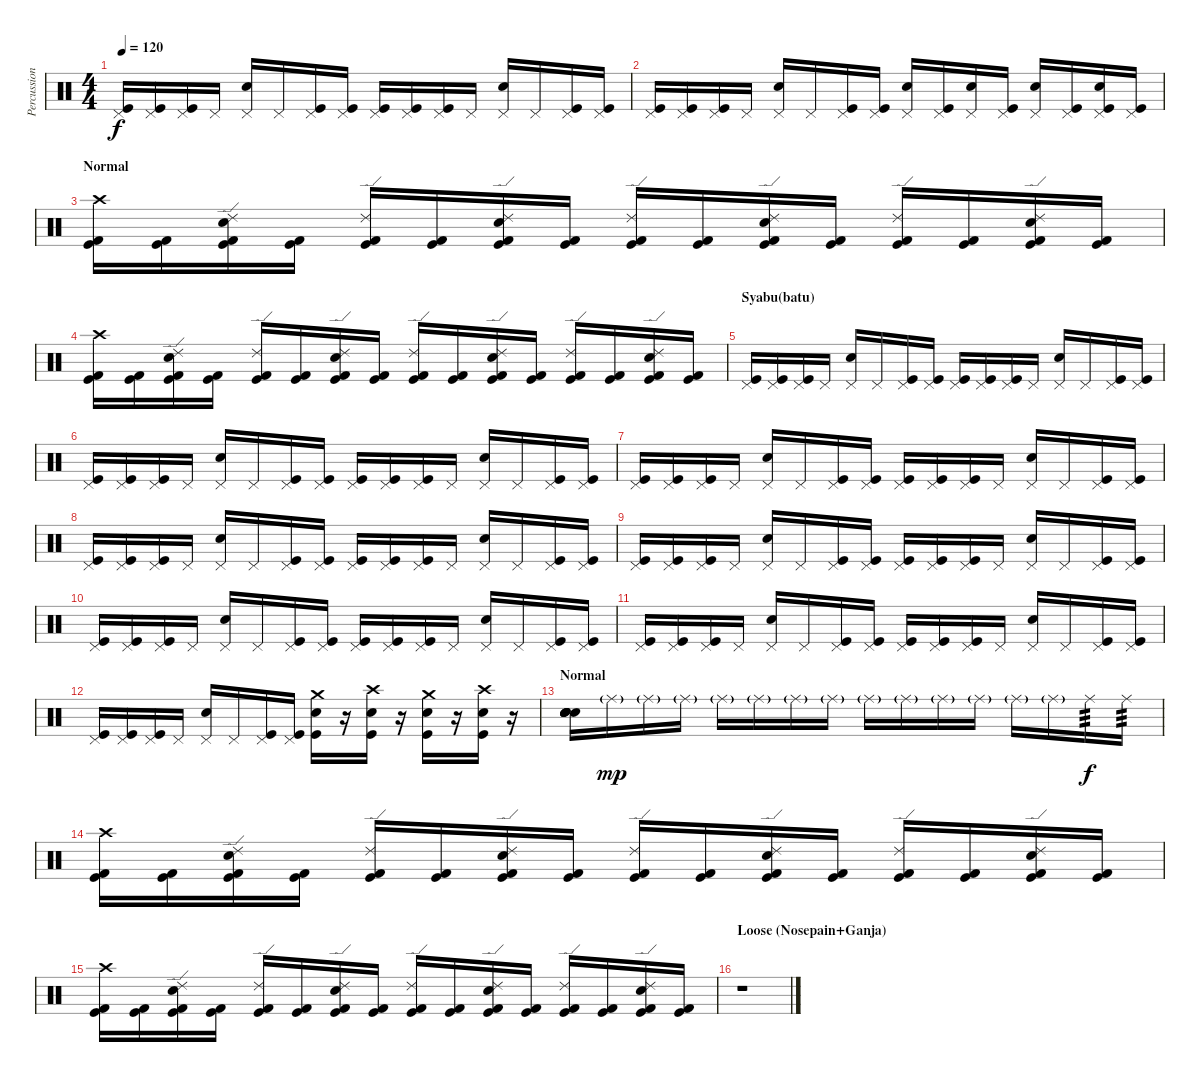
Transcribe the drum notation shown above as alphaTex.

\track ("Percussion" "Percussion") {instrument percussion}
\staff {score}
\articulation defaults
\ts (4 4)
\tempo 120
\clef neutral
\ks c
("Kick (hit)" "Pedal Hi-Hat (hit)").16{dy f} ("Kick (hit)" "Pedal Hi-Hat (hit)").16 ("Kick (hit)" "Pedal Hi-Hat (hit)").16 "Pedal Hi-Hat (hit)".16 ("Snare (hit) 2" "Pedal Hi-Hat (hit)").16 "Pedal Hi-Hat (hit)".16 ("Kick (hit)" "Pedal Hi-Hat (hit)").16 ("Kick (hit)" "Pedal Hi-Hat (hit)").16 ("Kick (hit)" "Pedal Hi-Hat (hit)").16 ("Kick (hit)" "Pedal Hi-Hat (hit)").16 ("Kick (hit)" "Pedal Hi-Hat (hit)").16 "Pedal Hi-Hat (hit)".16 ("Snare (hit) 2" "Pedal Hi-Hat (hit)").16 "Pedal Hi-Hat (hit)".16 ("Kick (hit)" "Pedal Hi-Hat (hit)").16 ("Kick (hit)" "Pedal Hi-Hat (hit)").16 |
("Kick (hit)" "Pedal Hi-Hat (hit)").16 ("Kick (hit)" "Pedal Hi-Hat (hit)").16 ("Kick (hit)" "Pedal Hi-Hat (hit)").16 "Pedal Hi-Hat (hit)".16 ("Snare (hit) 2" "Pedal Hi-Hat (hit)").16 "Pedal Hi-Hat (hit)".16 ("Kick (hit)" "Pedal Hi-Hat (hit)").16 ("Kick (hit)" "Pedal Hi-Hat (hit)").16 ("Snare (hit) 2" "Pedal Hi-Hat (hit)").16 ("Kick (hit)" "Pedal Hi-Hat (hit)").16 ("Snare (hit) 2" "Pedal Hi-Hat (hit)").16 ("Kick (hit)" "Pedal Hi-Hat (hit)").16 ("Snare (hit) 2" "Pedal Hi-Hat (hit)").16 ("Kick (hit)" "Pedal Hi-Hat (hit)").16 ("Kick (hit)" "Snare (hit) 2" "Pedal Hi-Hat (hit)").16 ("Kick (hit)" "Pedal Hi-Hat (hit)").16 |
\section ("" "Normal")
("Kick (hit)" "Kick (hit) 2" "Crash high (hit)").16 ("Kick (hit)" "Kick (hit) 2").16 ("Kick (hit)" "Kick (hit) 2" "Electric Snare (hit)" "Ride (edge) 2").16 ("Kick (hit)" "Kick (hit) 2").16 ("Kick (hit)" "Kick (hit) 2" "Ride (edge) 2").16 ("Kick (hit)" "Kick (hit) 2").16 ("Kick (hit)" "Kick (hit) 2" "Electric Snare (hit)" "Ride (edge) 2").16 ("Kick (hit)" "Kick (hit) 2").16 ("Kick (hit)" "Kick (hit) 2" "Ride (edge) 2").16 ("Kick (hit)" "Kick (hit) 2").16 ("Kick (hit)" "Kick (hit) 2" "Electric Snare (hit)" "Ride (edge) 2").16 ("Kick (hit)" "Kick (hit) 2").16 ("Kick (hit)" "Kick (hit) 2" "Ride (edge) 2").16 ("Kick (hit)" "Kick (hit) 2").16 ("Kick (hit)" "Kick (hit) 2" "Electric Snare (hit)" "Ride (edge) 2").16 ("Kick (hit)" "Kick (hit) 2").16 |
("Kick (hit)" "Kick (hit) 2" "Crash high (hit)").16 ("Kick (hit)" "Kick (hit) 2").16 ("Kick (hit)" "Kick (hit) 2" "Electric Snare (hit)" "Ride (edge) 2").16 ("Kick (hit)" "Kick (hit) 2").16 ("Kick (hit)" "Kick (hit) 2" "Ride (edge) 2").16 ("Kick (hit)" "Kick (hit) 2").16 ("Kick (hit)" "Kick (hit) 2" "Electric Snare (hit)" "Ride (edge) 2").16 ("Kick (hit)" "Kick (hit) 2").16 ("Kick (hit)" "Kick (hit) 2" "Ride (edge) 2").16 ("Kick (hit)" "Kick (hit) 2").16 ("Kick (hit)" "Kick (hit) 2" "Electric Snare (hit)" "Ride (edge) 2").16 ("Kick (hit)" "Kick (hit) 2").16 ("Kick (hit)" "Kick (hit) 2" "Ride (edge) 2").16 ("Kick (hit)" "Kick (hit) 2").16 ("Kick (hit)" "Kick (hit) 2" "Electric Snare (hit)" "Ride (edge) 2").16 ("Kick (hit)" "Kick (hit) 2").16 |
\section ("" "Syabu(batu)")
("Kick (hit)" "Pedal Hi-Hat (hit)").16 ("Kick (hit)" "Pedal Hi-Hat (hit)").16 ("Kick (hit)" "Pedal Hi-Hat (hit)").16 "Pedal Hi-Hat (hit)".16 ("Snare (hit) 2" "Pedal Hi-Hat (hit)").16 "Pedal Hi-Hat (hit)".16 ("Kick (hit)" "Pedal Hi-Hat (hit)").16 ("Kick (hit)" "Pedal Hi-Hat (hit)").16 ("Kick (hit)" "Pedal Hi-Hat (hit)").16 ("Kick (hit)" "Pedal Hi-Hat (hit)").16 ("Kick (hit)" "Pedal Hi-Hat (hit)").16 "Pedal Hi-Hat (hit)".16 ("Snare (hit) 2" "Pedal Hi-Hat (hit)").16 "Pedal Hi-Hat (hit)".16 ("Kick (hit)" "Pedal Hi-Hat (hit)").16 ("Kick (hit)" "Pedal Hi-Hat (hit)").16 |
("Kick (hit)" "Pedal Hi-Hat (hit)").16 ("Kick (hit)" "Pedal Hi-Hat (hit)").16 ("Kick (hit)" "Pedal Hi-Hat (hit)").16 "Pedal Hi-Hat (hit)".16 ("Snare (hit) 2" "Pedal Hi-Hat (hit)").16 "Pedal Hi-Hat (hit)".16 ("Kick (hit)" "Pedal Hi-Hat (hit)").16 ("Kick (hit)" "Pedal Hi-Hat (hit)").16 ("Kick (hit)" "Pedal Hi-Hat (hit)").16 ("Kick (hit)" "Pedal Hi-Hat (hit)").16 ("Kick (hit)" "Pedal Hi-Hat (hit)").16 "Pedal Hi-Hat (hit)".16 ("Snare (hit) 2" "Pedal Hi-Hat (hit)").16 "Pedal Hi-Hat (hit)".16 ("Kick (hit)" "Pedal Hi-Hat (hit)").16 ("Kick (hit)" "Pedal Hi-Hat (hit)").16 |
("Kick (hit)" "Pedal Hi-Hat (hit)").16 ("Kick (hit)" "Pedal Hi-Hat (hit)").16 ("Kick (hit)" "Pedal Hi-Hat (hit)").16 "Pedal Hi-Hat (hit)".16 ("Snare (hit) 2" "Pedal Hi-Hat (hit)").16 "Pedal Hi-Hat (hit)".16 ("Kick (hit)" "Pedal Hi-Hat (hit)").16 ("Kick (hit)" "Pedal Hi-Hat (hit)").16 ("Kick (hit)" "Pedal Hi-Hat (hit)").16 ("Kick (hit)" "Pedal Hi-Hat (hit)").16 ("Kick (hit)" "Pedal Hi-Hat (hit)").16 "Pedal Hi-Hat (hit)".16 ("Snare (hit) 2" "Pedal Hi-Hat (hit)").16 "Pedal Hi-Hat (hit)".16 ("Kick (hit)" "Pedal Hi-Hat (hit)").16 ("Kick (hit)" "Pedal Hi-Hat (hit)").16 |
("Kick (hit)" "Pedal Hi-Hat (hit)").16 ("Kick (hit)" "Pedal Hi-Hat (hit)").16 ("Kick (hit)" "Pedal Hi-Hat (hit)").16 "Pedal Hi-Hat (hit)".16 ("Snare (hit) 2" "Pedal Hi-Hat (hit)").16 "Pedal Hi-Hat (hit)".16 ("Kick (hit)" "Pedal Hi-Hat (hit)").16 ("Kick (hit)" "Pedal Hi-Hat (hit)").16 ("Kick (hit)" "Pedal Hi-Hat (hit)").16 ("Kick (hit)" "Pedal Hi-Hat (hit)").16 ("Kick (hit)" "Pedal Hi-Hat (hit)").16 "Pedal Hi-Hat (hit)".16 ("Snare (hit) 2" "Pedal Hi-Hat (hit)").16 "Pedal Hi-Hat (hit)".16 ("Kick (hit)" "Pedal Hi-Hat (hit)").16 ("Kick (hit)" "Pedal Hi-Hat (hit)").16 |
("Kick (hit)" "Pedal Hi-Hat (hit)").16 ("Kick (hit)" "Pedal Hi-Hat (hit)").16 ("Kick (hit)" "Pedal Hi-Hat (hit)").16 "Pedal Hi-Hat (hit)".16 ("Snare (hit) 2" "Pedal Hi-Hat (hit)").16 "Pedal Hi-Hat (hit)".16 ("Kick (hit)" "Pedal Hi-Hat (hit)").16 ("Kick (hit)" "Pedal Hi-Hat (hit)").16 ("Kick (hit)" "Pedal Hi-Hat (hit)").16 ("Kick (hit)" "Pedal Hi-Hat (hit)").16 ("Kick (hit)" "Pedal Hi-Hat (hit)").16 "Pedal Hi-Hat (hit)".16 ("Snare (hit) 2" "Pedal Hi-Hat (hit)").16 "Pedal Hi-Hat (hit)".16 ("Kick (hit)" "Pedal Hi-Hat (hit)").16 ("Kick (hit)" "Pedal Hi-Hat (hit)").16 |
("Kick (hit)" "Pedal Hi-Hat (hit)").16 ("Kick (hit)" "Pedal Hi-Hat (hit)").16 ("Kick (hit)" "Pedal Hi-Hat (hit)").16 "Pedal Hi-Hat (hit)".16 ("Snare (hit) 2" "Pedal Hi-Hat (hit)").16 "Pedal Hi-Hat (hit)".16 ("Kick (hit)" "Pedal Hi-Hat (hit)").16 ("Kick (hit)" "Pedal Hi-Hat (hit)").16 ("Kick (hit)" "Pedal Hi-Hat (hit)").16 ("Kick (hit)" "Pedal Hi-Hat (hit)").16 ("Kick (hit)" "Pedal Hi-Hat (hit)").16 "Pedal Hi-Hat (hit)".16 ("Snare (hit) 2" "Pedal Hi-Hat (hit)").16 "Pedal Hi-Hat (hit)".16 ("Kick (hit)" "Pedal Hi-Hat (hit)").16 ("Kick (hit)" "Pedal Hi-Hat (hit)").16 |
("Kick (hit)" "Pedal Hi-Hat (hit)").16 ("Kick (hit)" "Pedal Hi-Hat (hit)").16 ("Kick (hit)" "Pedal Hi-Hat (hit)").16 "Pedal Hi-Hat (hit)".16 ("Snare (hit) 2" "Pedal Hi-Hat (hit)").16 "Pedal Hi-Hat (hit)".16 ("Kick (hit)" "Pedal Hi-Hat (hit)").16 ("Kick (hit)" "Pedal Hi-Hat (hit)").16 ("Kick (hit)" "Pedal Hi-Hat (hit)").16 ("Kick (hit)" "Pedal Hi-Hat (hit)").16 ("Kick (hit)" "Pedal Hi-Hat (hit)").16 "Pedal Hi-Hat (hit)".16 ("Snare (hit) 2" "Pedal Hi-Hat (hit)").16 "Pedal Hi-Hat (hit)".16 ("Kick (hit)" "Pedal Hi-Hat (hit)").16 ("Kick (hit)" "Pedal Hi-Hat (hit)").16 |
("Kick (hit)" "Pedal Hi-Hat (hit)").16 ("Kick (hit)" "Pedal Hi-Hat (hit)").16 ("Kick (hit)" "Pedal Hi-Hat (hit)").16 "Pedal Hi-Hat (hit)".16 ("Snare (hit) 2" "Pedal Hi-Hat (hit)").16 "Pedal Hi-Hat (hit)".16 ("Kick (hit)" "Pedal Hi-Hat (hit)").16 ("Kick (hit)" "Pedal Hi-Hat (hit)").16 ("Kick (hit)" "Snare (hit) 2" "Crash medium (hit)").16 r.16 ("Kick (hit)" "Snare (hit) 2" "Crash high (hit)").16 r.16 ("Kick (hit)" "Snare (hit) 2" "Crash medium (hit)").16 r.16 ("Kick (hit)" "Snare (hit) 2" "Crash high (hit)").16 r.16 |
\section ("" "Normal")
("Snare (hit) 2" "Snare (hit) 2" "Snare (hit) 2" "Snare (hit) 2" "Snare (hit) 2").16 "Ride (middle)"{g}.16{dy mp} "Ride (middle)"{g}.16 "Ride (middle)"{g}.16 "Ride (middle)"{g}.16 "Ride (middle)"{g}.16 "Ride (middle)"{g}.16 "Ride (middle)"{g}.16 "Ride (middle)"{g}.16 "Ride (middle)"{g}.16 "Ride (middle)"{g}.16 "Ride (middle)"{g}.16 "Ride (middle)"{g}.16 "Ride (middle)"{g}.16 "Ride (middle)".16{tp 3 dy f} "Ride (middle)".16{tp 3} |
("Kick (hit)" "Kick (hit) 2" "Crash high (hit)").16 ("Kick (hit)" "Kick (hit) 2").16 ("Kick (hit)" "Kick (hit) 2" "Electric Snare (hit)" "Ride (edge) 2").16 ("Kick (hit)" "Kick (hit) 2").16 ("Kick (hit)" "Kick (hit) 2" "Ride (edge) 2").16 ("Kick (hit)" "Kick (hit) 2").16 ("Kick (hit)" "Kick (hit) 2" "Electric Snare (hit)" "Ride (edge) 2").16 ("Kick (hit)" "Kick (hit) 2").16 ("Kick (hit)" "Kick (hit) 2" "Ride (edge) 2").16 ("Kick (hit)" "Kick (hit) 2").16 ("Kick (hit)" "Kick (hit) 2" "Electric Snare (hit)" "Ride (edge) 2").16 ("Kick (hit)" "Kick (hit) 2").16 ("Kick (hit)" "Kick (hit) 2" "Ride (edge) 2").16 ("Kick (hit)" "Kick (hit) 2").16 ("Kick (hit)" "Kick (hit) 2" "Electric Snare (hit)" "Ride (edge) 2").16 ("Kick (hit)" "Kick (hit) 2").16 |
("Kick (hit)" "Kick (hit) 2" "Crash high (hit)").16 ("Kick (hit)" "Kick (hit) 2").16 ("Kick (hit)" "Kick (hit) 2" "Electric Snare (hit)" "Ride (edge) 2").16 ("Kick (hit)" "Kick (hit) 2").16 ("Kick (hit)" "Kick (hit) 2" "Ride (edge) 2").16 ("Kick (hit)" "Kick (hit) 2").16 ("Kick (hit)" "Kick (hit) 2" "Electric Snare (hit)" "Ride (edge) 2").16 ("Kick (hit)" "Kick (hit) 2").16 ("Kick (hit)" "Kick (hit) 2" "Ride (edge) 2").16 ("Kick (hit)" "Kick (hit) 2").16 ("Kick (hit)" "Kick (hit) 2" "Electric Snare (hit)" "Ride (edge) 2").16 ("Kick (hit)" "Kick (hit) 2").16 ("Kick (hit)" "Kick (hit) 2" "Ride (edge) 2").16 ("Kick (hit)" "Kick (hit) 2").16 ("Kick (hit)" "Kick (hit) 2" "Electric Snare (hit)" "Ride (edge) 2").16 ("Kick (hit)" "Kick (hit) 2").16 |
\section ("" "Loose (Nosepain+Ganja)")
r.1
